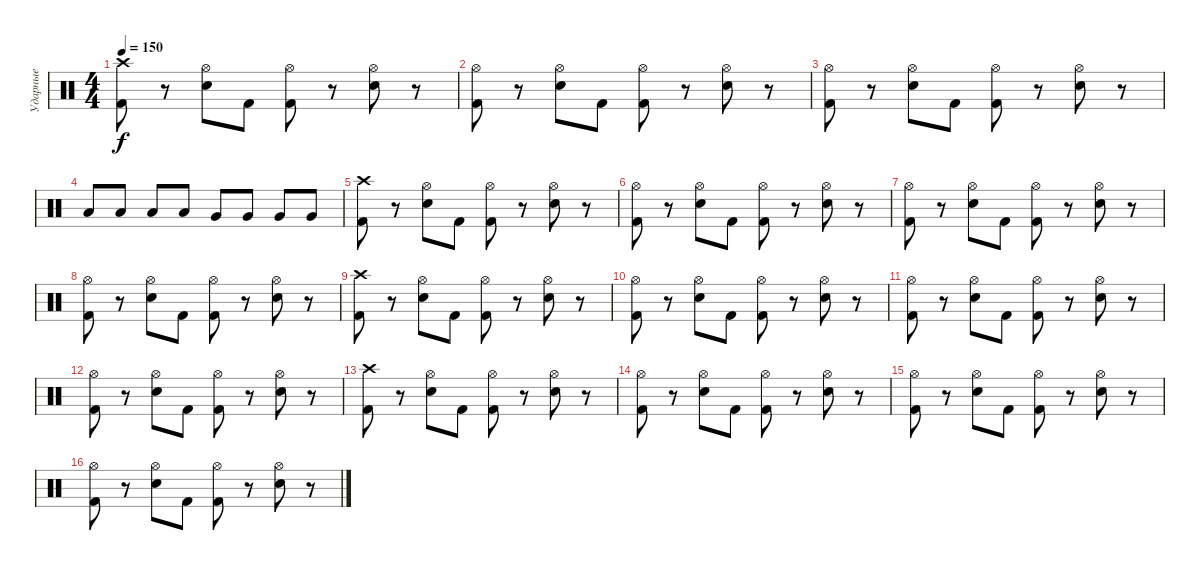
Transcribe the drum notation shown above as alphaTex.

\track ("Ударные" "Ударные") {instrument percussion}
\staff {score}
\articulation defaults
\ts (4 4)
\tempo 150
\clef neutral
\ks c
("Kick (hit) 2" "Crash high (hit)").8{dy f} r.8 ("Hi-Hat (open)" "Snare (hit) 2").8 "Kick (hit) 2".8 ("Hi-Hat (open)" "Kick (hit) 2").8 r.8 ("Hi-Hat (open)" "Snare (hit) 2").8 r.8 |
("Kick (hit) 2" "Hi-Hat (open)").8 r.8 ("Snare (hit) 2" "Hi-Hat (open)").8 "Kick (hit) 2".8 ("Kick (hit) 2" "Hi-Hat (open)").8 r.8 ("Snare (hit) 2" "Hi-Hat (open)").8 r.8 |
("Kick (hit) 2" "Hi-Hat (open)").8 r.8 ("Snare (hit) 2" "Hi-Hat (open)").8 "Kick (hit) 2".8 ("Kick (hit) 2" "Hi-Hat (open)").8 r.8 ("Snare (hit) 2" "Hi-Hat (open)").8 r.8 |
"Low Tom (hit)".8 "Low Tom (hit)".8 "Low Tom (hit)".8 "Low Tom (hit)".8 "Very Low Tom (hit)".8 "Very Low Tom (hit)".8 "Very Low Tom (hit)".8 "Very Low Tom (hit)".8 |
("Kick (hit) 2" "Crash high (hit)").8 r.8 ("Hi-Hat (open)" "Snare (hit) 2").8 "Kick (hit) 2".8 ("Hi-Hat (open)" "Kick (hit) 2").8 r.8 ("Hi-Hat (open)" "Snare (hit) 2").8 r.8 |
("Kick (hit) 2" "Hi-Hat (open)").8 r.8 ("Snare (hit) 2" "Hi-Hat (open)").8 "Kick (hit) 2".8 ("Kick (hit) 2" "Hi-Hat (open)").8 r.8 ("Snare (hit) 2" "Hi-Hat (open)").8 r.8 |
("Kick (hit) 2" "Hi-Hat (open)").8 r.8 ("Snare (hit) 2" "Hi-Hat (open)").8 "Kick (hit) 2".8 ("Kick (hit) 2" "Hi-Hat (open)").8 r.8 ("Snare (hit) 2" "Hi-Hat (open)").8 r.8 |
("Kick (hit) 2" "Hi-Hat (open)").8 r.8 ("Snare (hit) 2" "Hi-Hat (open)").8 "Kick (hit) 2".8 ("Kick (hit) 2" "Hi-Hat (open)").8 r.8 ("Snare (hit) 2" "Hi-Hat (open)").8 r.8 |
("Kick (hit) 2" "Crash high (hit)").8 r.8 ("Hi-Hat (open)" "Snare (hit) 2").8 "Kick (hit) 2".8 ("Hi-Hat (open)" "Kick (hit) 2").8 r.8 ("Hi-Hat (open)" "Snare (hit) 2").8 r.8 |
("Kick (hit) 2" "Hi-Hat (open)").8 r.8 ("Snare (hit) 2" "Hi-Hat (open)").8 "Kick (hit) 2".8 ("Kick (hit) 2" "Hi-Hat (open)").8 r.8 ("Snare (hit) 2" "Hi-Hat (open)").8 r.8 |
("Kick (hit) 2" "Hi-Hat (open)").8 r.8 ("Snare (hit) 2" "Hi-Hat (open)").8 "Kick (hit) 2".8 ("Kick (hit) 2" "Hi-Hat (open)").8 r.8 ("Snare (hit) 2" "Hi-Hat (open)").8 r.8 |
("Kick (hit) 2" "Hi-Hat (open)").8 r.8 ("Snare (hit) 2" "Hi-Hat (open)").8 "Kick (hit) 2".8 ("Kick (hit) 2" "Hi-Hat (open)").8 r.8 ("Snare (hit) 2" "Hi-Hat (open)").8 r.8 |
("Kick (hit) 2" "Crash high (hit)").8 r.8 ("Hi-Hat (open)" "Snare (hit) 2").8 "Kick (hit) 2".8 ("Hi-Hat (open)" "Kick (hit) 2").8 r.8 ("Hi-Hat (open)" "Snare (hit) 2").8 r.8 |
("Kick (hit) 2" "Hi-Hat (open)").8 r.8 ("Snare (hit) 2" "Hi-Hat (open)").8 "Kick (hit) 2".8 ("Kick (hit) 2" "Hi-Hat (open)").8 r.8 ("Snare (hit) 2" "Hi-Hat (open)").8 r.8 |
("Kick (hit) 2" "Hi-Hat (open)").8 r.8 ("Snare (hit) 2" "Hi-Hat (open)").8 "Kick (hit) 2".8 ("Kick (hit) 2" "Hi-Hat (open)").8 r.8 ("Snare (hit) 2" "Hi-Hat (open)").8 r.8 |
("Kick (hit) 2" "Hi-Hat (open)").8 r.8 ("Snare (hit) 2" "Hi-Hat (open)").8 "Kick (hit) 2".8 ("Kick (hit) 2" "Hi-Hat (open)").8 r.8 ("Snare (hit) 2" "Hi-Hat (open)").8 r.8
